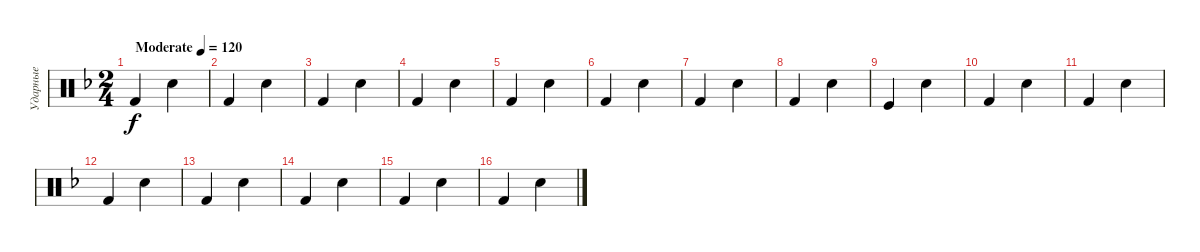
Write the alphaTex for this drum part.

\track ("Ударные" "Ударные") {instrument percussion}
\staff {score}
\articulation defaults
\ts (2 4)
\tempo (120 "Moderate")
\clef neutral
\ks f "Kick (hit) 2".4{dy f} "Snare (hit) 2".4
|
"Kick (hit) 2".4 "Snare (hit) 2".4 |
"Kick (hit) 2".4 "Snare (hit) 2".4 |
"Kick (hit) 2".4 "Snare (hit) 2".4 |
"Kick (hit) 2".4 "Snare (hit) 2".4 |
"Kick (hit) 2".4 "Snare (hit) 2".4 |
"Kick (hit) 2".4 "Snare (hit) 2".4 |
"Kick (hit) 2".4 "Snare (hit) 2".4 |
"Kick (hit)".4 "Snare (hit) 2".4 |
"Kick (hit) 2".4 "Snare (hit) 2".4 |
"Kick (hit) 2".4 "Snare (hit) 2".4 |
"Kick (hit) 2".4 "Snare (hit) 2".4 |
"Kick (hit) 2".4 "Snare (hit) 2".4 |
"Kick (hit) 2".4 "Snare (hit) 2".4 |
"Kick (hit) 2".4 "Snare (hit) 2".4 |
"Kick (hit) 2".4 "Snare (hit) 2".4
